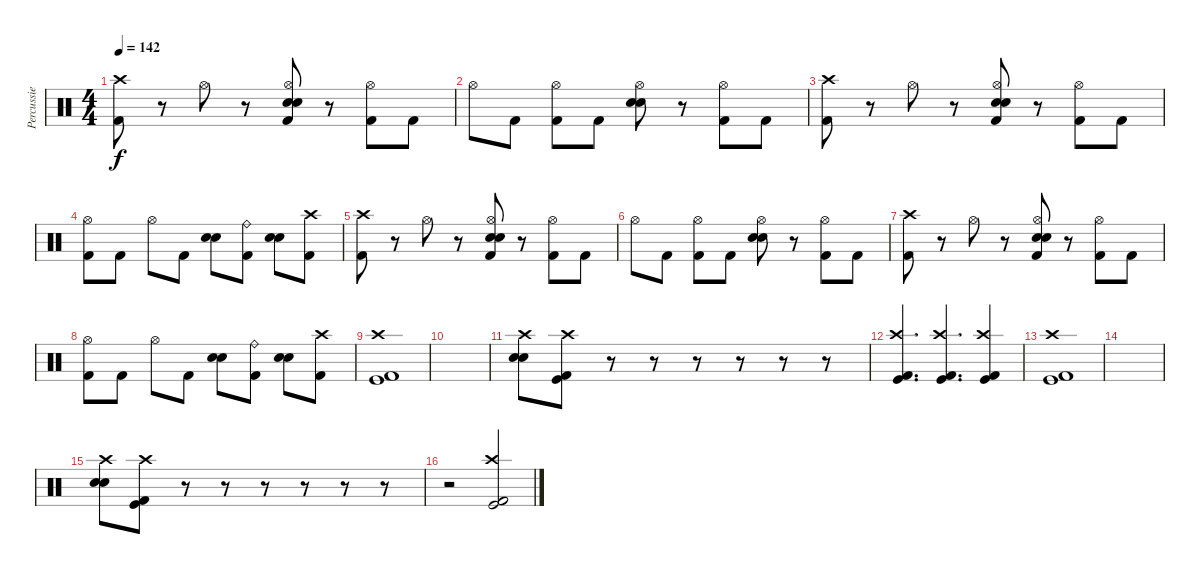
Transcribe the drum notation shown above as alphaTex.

\track ("Percussie" "Percussie") {instrument percussion}
\staff {score}
\articulation defaults
\ts (4 4)
\tempo 142
\clef neutral
\ks c
("Kick (hit) 2" "Crash high (hit)").8{dy f} r.8 "Hi-Hat (open)".8 r.8 ("Kick (hit) 2" "Electric Snare (hit)" "Hi-Hat (open)" "Snare (hit) 2").8 r.8 ("Kick (hit) 2" "Hi-Hat (open)").8 "Kick (hit) 2".8 |
"Hi-Hat (open)".8 "Kick (hit) 2".8 ("Kick (hit) 2" "Hi-Hat (open)").8 "Kick (hit) 2".8 ("Snare (hit) 2" "Electric Snare (hit)" "Hi-Hat (open)").8 r.8 ("Kick (hit) 2" "Hi-Hat (open)").8 "Kick (hit) 2".8 |
("Kick (hit) 2" "Crash high (hit)").8 r.8 "Hi-Hat (open)".8 r.8 ("Kick (hit) 2" "Electric Snare (hit)" "Hi-Hat (open)" "Snare (hit) 2").8 r.8 ("Kick (hit) 2" "Hi-Hat (open)").8 "Kick (hit) 2".8 |
("Kick (hit) 2" "Hi-Hat (open)").8 "Kick (hit) 2".8 "Hi-Hat (open)".8 "Kick (hit) 2".8 ("Snare (hit) 2" "Electric Snare (hit)").8 ("Kick (hit) 2" "Ride (bell)").8 ("Snare (hit) 2" "Electric Snare (hit)").8 ("Kick (hit) 2" "Crash high (hit)").8 |
("Kick (hit) 2" "Crash high (hit)").8 r.8 "Hi-Hat (open)".8 r.8 ("Kick (hit) 2" "Electric Snare (hit)" "Hi-Hat (open)" "Snare (hit) 2").8 r.8 ("Kick (hit) 2" "Hi-Hat (open)").8 "Kick (hit) 2".8 |
"Hi-Hat (open)".8 "Kick (hit) 2".8 ("Kick (hit) 2" "Hi-Hat (open)").8 "Kick (hit) 2".8 ("Snare (hit) 2" "Electric Snare (hit)" "Hi-Hat (open)").8 r.8 ("Kick (hit) 2" "Hi-Hat (open)").8 "Kick (hit) 2".8 |
("Kick (hit) 2" "Crash high (hit)").8 r.8 "Hi-Hat (open)".8 r.8 ("Kick (hit) 2" "Electric Snare (hit)" "Hi-Hat (open)" "Snare (hit) 2").8 r.8 ("Kick (hit) 2" "Hi-Hat (open)").8 "Kick (hit) 2".8 |
("Kick (hit) 2" "Hi-Hat (open)").8 "Kick (hit) 2".8 "Hi-Hat (open)".8 "Kick (hit) 2".8 ("Snare (hit) 2" "Electric Snare (hit)").8 ("Kick (hit) 2" "Ride (bell)").8 ("Snare (hit) 2" "Electric Snare (hit)").8 ("Kick (hit) 2" "Crash high (hit)").8 |
("Kick (hit)" "Kick (hit) 2" "Crash high (hit)").1 |
|
("Snare (hit) 2" "Electric Snare (hit)" "Crash high (hit)").8 ("Kick (hit) 2" "Kick (hit)" "Crash high (hit)").8 r.8 r.8 r.8 r.8 r.8 r.8 |
("Kick (hit) 2" "Kick (hit)" "Crash high (hit)").4{d} ("Kick (hit) 2" "Kick (hit)" "Crash high (hit)").4{d} ("Kick (hit) 2" "Kick (hit)" "Crash high (hit)").4 |
("Kick (hit)" "Kick (hit) 2" "Crash high (hit)").1 |
|
("Snare (hit) 2" "Electric Snare (hit)" "Crash high (hit)").8 ("Kick (hit) 2" "Kick (hit)" "Crash high (hit)").8 r.8 r.8 r.8 r.8 r.8 r.8 |
r.2 ("Kick (hit) 2" "Kick (hit)" "Crash high (hit)").2
